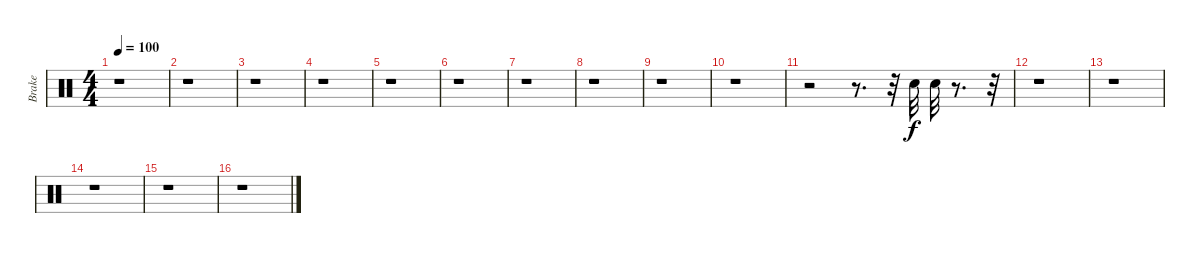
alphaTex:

\track ("Brake" "Brake") {instrument percussion}
\staff {score}
\articulation defaults
\ts (4 4)
\tempo 100
\clef neutral
\ks c
r.1{dy f} |
r.1 |
r.1 |
r.1 |
r.1 |
r.1 |
r.1 |
r.1 |
r.1 |
r.1 |
r.2 r.8{d} r.32 "Metronome (bell)".32 "Metronome (bell)".32 r.8{d} r.32 |
r.1 |
r.1 |
r.1 |
r.1 |
r.1
